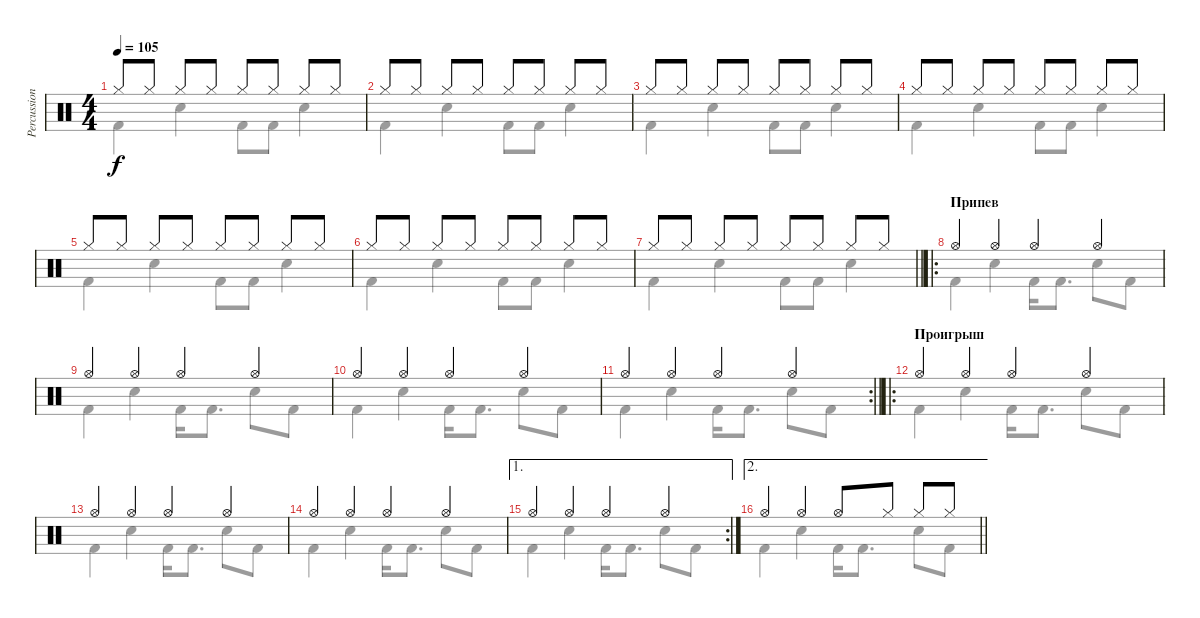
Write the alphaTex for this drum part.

\track ("Percussion" "Percussion") {instrument percussion}
\staff {score}
\articulation defaults
\voice
\ts (4 4)
\tempo 105
\clef neutral
\ks c "Hi-Hat (closed)".8{dy f} "Hi-Hat (closed)".8 "Hi-Hat (closed)".8 "Hi-Hat (closed)".8 "Hi-Hat (closed)".8 "Hi-Hat (closed)".8 "Hi-Hat (closed)".8 "Hi-Hat (closed)".8
|
"Hi-Hat (closed)".8 "Hi-Hat (closed)".8 "Hi-Hat (closed)".8 "Hi-Hat (closed)".8 "Hi-Hat (closed)".8 "Hi-Hat (closed)".8 "Hi-Hat (closed)".8 "Hi-Hat (closed)".8 |
"Hi-Hat (closed)".8 "Hi-Hat (closed)".8 "Hi-Hat (closed)".8 "Hi-Hat (closed)".8 "Hi-Hat (closed)".8 "Hi-Hat (closed)".8 "Hi-Hat (closed)".8 "Hi-Hat (closed)".8 |
"Hi-Hat (closed)".8 "Hi-Hat (closed)".8 "Hi-Hat (closed)".8 "Hi-Hat (closed)".8 "Hi-Hat (closed)".8 "Hi-Hat (closed)".8 "Hi-Hat (closed)".8 "Hi-Hat (closed)".8 |
"Hi-Hat (closed)".8 "Hi-Hat (closed)".8 "Hi-Hat (closed)".8 "Hi-Hat (closed)".8 "Hi-Hat (closed)".8 "Hi-Hat (closed)".8 "Hi-Hat (closed)".8 "Hi-Hat (closed)".8 |
"Hi-Hat (closed)".8 "Hi-Hat (closed)".8 "Hi-Hat (closed)".8 "Hi-Hat (closed)".8 "Hi-Hat (closed)".8 "Hi-Hat (closed)".8 "Hi-Hat (closed)".8 "Hi-Hat (closed)".8 |
\barLineRight lightlight "Hi-Hat (closed)".8 "Hi-Hat (closed)".8 "Hi-Hat (closed)".8 "Hi-Hat (closed)".8 "Hi-Hat (closed)".8 "Hi-Hat (closed)".8 "Hi-Hat (closed)".8 "Hi-Hat (closed)".8
|
\ro
\section ("" "Припев")
"Hi-Hat (open)".4 "Hi-Hat (open)".4 "Hi-Hat (open)".4 "Hi-Hat (open)".4 |
"Hi-Hat (open)".4 "Hi-Hat (open)".4 "Hi-Hat (open)".4 "Hi-Hat (open)".4 |
"Hi-Hat (open)".4 "Hi-Hat (open)".4 "Hi-Hat (open)".4 "Hi-Hat (open)".4 |
\rc 2
\barLineRight lightlight "Hi-Hat (open)".4 "Hi-Hat (open)".4 "Hi-Hat (open)".4 "Hi-Hat (open)".4
|
\ro
\section ("" "Проигрыш")
"Hi-Hat (open)".4 "Hi-Hat (open)".4 "Hi-Hat (open)".4 "Hi-Hat (open)".4 |
"Hi-Hat (open)".4 "Hi-Hat (open)".4 "Hi-Hat (open)".4 "Hi-Hat (open)".4 |
"Hi-Hat (open)".4 "Hi-Hat (open)".4 "Hi-Hat (open)".4 "Hi-Hat (open)".4 |
\ae 1
\rc 2 "Hi-Hat (open)".4 "Hi-Hat (open)".4 "Hi-Hat (open)".4 "Hi-Hat (open)".4
|
\ae 2
\barLineRight lightlight "Hi-Hat (open)".4 "Hi-Hat (open)".4 "Hi-Hat (open)".8 "Hi-Hat (closed)".8 "Hi-Hat (closed)".8 "Hi-Hat (closed)".8
\voice
\clef neutral
\ottava regular
\simile none
\ks c "Kick (hit) 2".4{dy f} "Electric Snare (hit)".4 "Kick (hit) 2".8 "Kick (hit) 2".8 "Electric Snare (hit)".4
|
"Kick (hit) 2".4 "Electric Snare (hit)".4 "Kick (hit) 2".8 "Kick (hit) 2".8 "Electric Snare (hit)".4 |
"Kick (hit) 2".4 "Electric Snare (hit)".4 "Kick (hit) 2".8 "Kick (hit) 2".8 "Electric Snare (hit)".4 |
"Kick (hit) 2".4 "Electric Snare (hit)".4 "Kick (hit) 2".8 "Kick (hit) 2".8 "Electric Snare (hit)".4 |
"Kick (hit) 2".4 "Electric Snare (hit)".4 "Kick (hit) 2".8 "Kick (hit) 2".8 "Electric Snare (hit)".4 |
"Kick (hit) 2".4 "Electric Snare (hit)".4 "Kick (hit) 2".8 "Kick (hit) 2".8 "Electric Snare (hit)".4 |
\barLineRight lightlight "Kick (hit) 2".4 "Electric Snare (hit)".4 "Kick (hit) 2".8 "Kick (hit) 2".8 "Electric Snare (hit)".4
|
"Kick (hit) 2".4 "Electric Snare (hit)".4 "Kick (hit) 2".16 "Kick (hit) 2".8{d} "Electric Snare (hit)".8 "Kick (hit) 2".8 |
"Kick (hit) 2".4 "Electric Snare (hit)".4 "Kick (hit) 2".16 "Kick (hit) 2".8{d} "Electric Snare (hit)".8 "Kick (hit) 2".8 |
"Kick (hit) 2".4 "Electric Snare (hit)".4 "Kick (hit) 2".16 "Kick (hit) 2".8{d} "Electric Snare (hit)".8 "Kick (hit) 2".8 |
\barLineRight lightlight "Kick (hit) 2".4 "Electric Snare (hit)".4 "Kick (hit) 2".16 "Kick (hit) 2".8{d} "Electric Snare (hit)".8 "Kick (hit) 2".8
|
"Kick (hit) 2".4 "Electric Snare (hit)".4 "Kick (hit) 2".16 "Kick (hit) 2".8{d} "Electric Snare (hit)".8 "Kick (hit) 2".8 |
"Kick (hit) 2".4 "Electric Snare (hit)".4 "Kick (hit) 2".16 "Kick (hit) 2".8{d} "Electric Snare (hit)".8 "Kick (hit) 2".8 |
"Kick (hit) 2".4 "Electric Snare (hit)".4 "Kick (hit) 2".16 "Kick (hit) 2".8{d} "Electric Snare (hit)".8 "Kick (hit) 2".8 |
"Kick (hit) 2".4 "Electric Snare (hit)".4 "Kick (hit) 2".16 "Kick (hit) 2".8{d} "Electric Snare (hit)".8 "Kick (hit) 2".8 |
\barLineRight lightlight "Kick (hit) 2".4 "Electric Snare (hit)".4 "Kick (hit) 2".16 "Kick (hit) 2".8{d} "Electric Snare (hit)".8 "Kick (hit) 2".8
